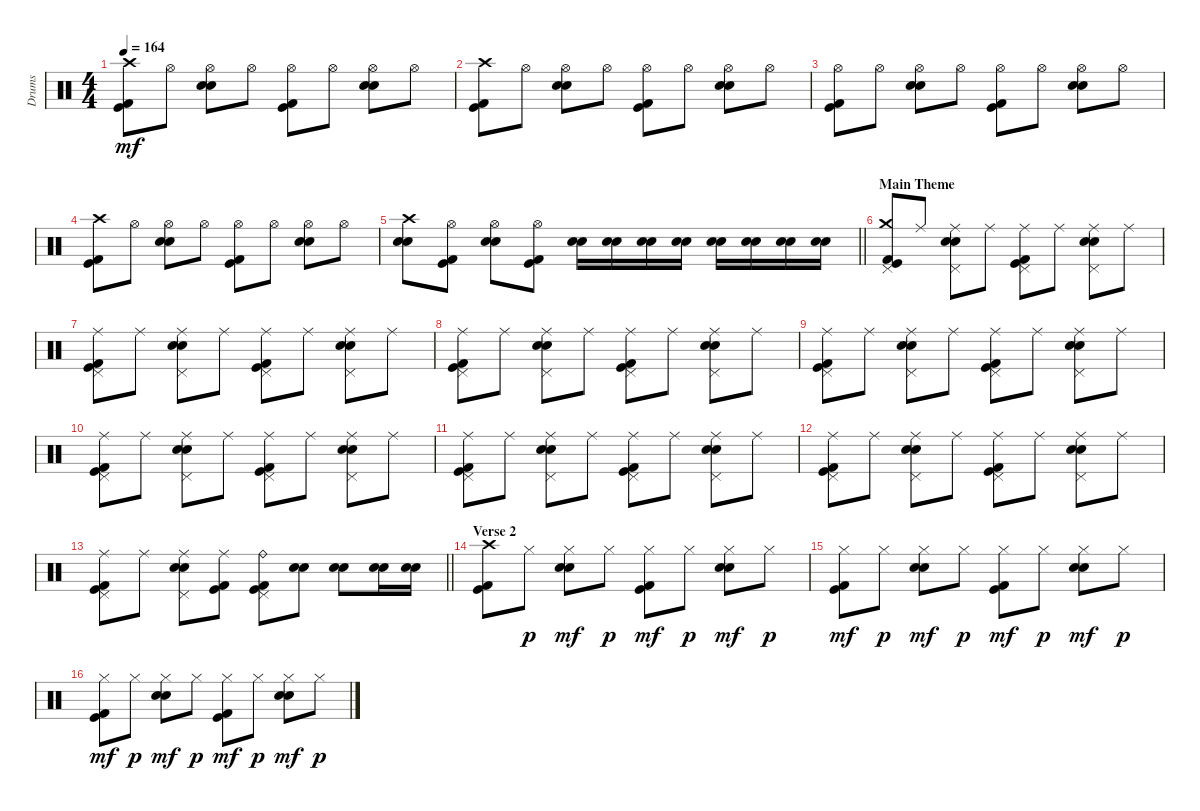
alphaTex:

\track ("Drums" "Drums") {instrument percussion}
\staff {score}
\articulation defaults
\ts (4 4)
\tempo 164
\clef neutral
\ks c
("Crash high (hit)" "Kick (hit) 2" "Kick (hit)").8{dy mf} "Hi-Hat (open)".8 ("Hi-Hat (open)" "Snare (hit) 2" "Electric Snare (hit)").8 "Hi-Hat (open)".8 ("Hi-Hat (open)" "Kick (hit) 2" "Kick (hit)").8 "Hi-Hat (open)".8 ("Hi-Hat (open)" "Snare (hit) 2" "Electric Snare (hit)").8 "Hi-Hat (open)".8 |
("Crash high (hit)" "Kick (hit) 2" "Kick (hit)").8 "Hi-Hat (open)".8 ("Hi-Hat (open)" "Snare (hit) 2" "Electric Snare (hit)").8 "Hi-Hat (open)".8 ("Hi-Hat (open)" "Kick (hit) 2" "Kick (hit)").8 "Hi-Hat (open)".8 ("Hi-Hat (open)" "Snare (hit) 2" "Electric Snare (hit)").8 "Hi-Hat (open)".8 |
("Hi-Hat (open)" "Kick (hit) 2" "Kick (hit)").8 "Hi-Hat (open)".8 ("Hi-Hat (open)" "Snare (hit) 2" "Electric Snare (hit)").8 "Hi-Hat (open)".8 ("Hi-Hat (open)" "Kick (hit) 2" "Kick (hit)").8 "Hi-Hat (open)".8 ("Hi-Hat (open)" "Snare (hit) 2" "Electric Snare (hit)").8 "Hi-Hat (open)".8 |
("Crash high (hit)" "Kick (hit) 2" "Kick (hit)").8 "Hi-Hat (open)".8 ("Hi-Hat (open)" "Snare (hit) 2" "Electric Snare (hit)").8 "Hi-Hat (open)".8 ("Hi-Hat (open)" "Kick (hit) 2" "Kick (hit)").8 "Hi-Hat (open)".8 ("Hi-Hat (open)" "Snare (hit) 2" "Electric Snare (hit)").8 "Hi-Hat (open)".8 |
\barLineRight lightlight
("Crash high (hit)" "Snare (hit) 2" "Electric Snare (hit)").8 ("Hi-Hat (open)" "Kick (hit) 2" "Kick (hit)").8 ("Hi-Hat (open)" "Snare (hit) 2" "Electric Snare (hit)").8 ("Hi-Hat (open)" "Kick (hit) 2" "Kick (hit)").8 ("Snare (hit) 2" "Electric Snare (hit)").16 ("Snare (hit) 2" "Electric Snare (hit)").16 ("Snare (hit) 2" "Electric Snare (hit)").16 ("Snare (hit) 2" "Electric Snare (hit)").16 ("Snare (hit) 2" "Electric Snare (hit)").16 ("Snare (hit) 2" "Electric Snare (hit)").16 ("Snare (hit) 2" "Electric Snare (hit)").16 ("Snare (hit) 2" "Electric Snare (hit)").16 |
\section ("" "Main Theme")
("Crash medium (hit)" "Pedal Hi-Hat (hit)" "Kick (hit) 2" "Kick (hit)").8 "Ride (middle)".8 ("Ride (middle)" "Pedal Hi-Hat (hit)" "Snare (hit) 2" "Electric Snare (hit)").8 "Ride (middle)".8 ("Ride (middle)" "Pedal Hi-Hat (hit)" "Kick (hit) 2" "Kick (hit)").8 "Ride (middle)".8 ("Ride (middle)" "Pedal Hi-Hat (hit)" "Snare (hit) 2" "Electric Snare (hit)").8 "Ride (middle)".8 |
("Ride (middle)" "Pedal Hi-Hat (hit)" "Kick (hit) 2" "Kick (hit)").8 "Ride (middle)".8 ("Ride (middle)" "Pedal Hi-Hat (hit)" "Snare (hit) 2" "Electric Snare (hit)").8 "Ride (middle)".8 ("Ride (middle)" "Pedal Hi-Hat (hit)" "Kick (hit) 2" "Kick (hit)").8 "Ride (middle)".8 ("Ride (middle)" "Pedal Hi-Hat (hit)" "Snare (hit) 2" "Electric Snare (hit)").8 "Ride (middle)".8 |
("Ride (middle)" "Pedal Hi-Hat (hit)" "Kick (hit) 2" "Kick (hit)").8 "Ride (middle)".8 ("Ride (middle)" "Pedal Hi-Hat (hit)" "Snare (hit) 2" "Electric Snare (hit)").8 "Ride (middle)".8 ("Ride (middle)" "Pedal Hi-Hat (hit)" "Kick (hit) 2" "Kick (hit)").8 "Ride (middle)".8 ("Ride (middle)" "Pedal Hi-Hat (hit)" "Snare (hit) 2" "Electric Snare (hit)").8 "Ride (middle)".8 |
("Ride (middle)" "Pedal Hi-Hat (hit)" "Kick (hit) 2" "Kick (hit)").8 "Ride (middle)".8 ("Ride (middle)" "Pedal Hi-Hat (hit)" "Snare (hit) 2" "Electric Snare (hit)").8 "Ride (middle)".8 ("Ride (middle)" "Pedal Hi-Hat (hit)" "Kick (hit) 2" "Kick (hit)").8 "Ride (middle)".8 ("Ride (middle)" "Pedal Hi-Hat (hit)" "Snare (hit) 2" "Electric Snare (hit)").8 "Ride (middle)".8 |
("Ride (middle)" "Pedal Hi-Hat (hit)" "Kick (hit) 2" "Kick (hit)").8 "Ride (middle)".8 ("Ride (middle)" "Pedal Hi-Hat (hit)" "Snare (hit) 2" "Electric Snare (hit)").8 "Ride (middle)".8 ("Ride (middle)" "Pedal Hi-Hat (hit)" "Kick (hit) 2" "Kick (hit)").8 "Ride (middle)".8 ("Ride (middle)" "Pedal Hi-Hat (hit)" "Snare (hit) 2" "Electric Snare (hit)").8 "Ride (middle)".8 |
("Ride (middle)" "Pedal Hi-Hat (hit)" "Kick (hit) 2" "Kick (hit)").8 "Ride (middle)".8 ("Ride (middle)" "Pedal Hi-Hat (hit)" "Snare (hit) 2" "Electric Snare (hit)").8 "Ride (middle)".8 ("Ride (middle)" "Pedal Hi-Hat (hit)" "Kick (hit) 2" "Kick (hit)").8 "Ride (middle)".8 ("Ride (middle)" "Pedal Hi-Hat (hit)" "Snare (hit) 2" "Electric Snare (hit)").8 "Ride (middle)".8 |
("Ride (middle)" "Pedal Hi-Hat (hit)" "Kick (hit) 2" "Kick (hit)").8 "Ride (middle)".8 ("Ride (middle)" "Pedal Hi-Hat (hit)" "Snare (hit) 2" "Electric Snare (hit)").8 "Ride (middle)".8 ("Ride (middle)" "Pedal Hi-Hat (hit)" "Kick (hit) 2" "Kick (hit)").8 "Ride (middle)".8 ("Ride (middle)" "Pedal Hi-Hat (hit)" "Snare (hit) 2" "Electric Snare (hit)").8 "Ride (middle)".8 |
\barLineRight lightlight
("Ride (middle)" "Pedal Hi-Hat (hit)" "Kick (hit) 2" "Kick (hit)").8 "Ride (middle)".8 ("Ride (middle)" "Pedal Hi-Hat (hit)" "Snare (hit) 2" "Electric Snare (hit)").8 ("Ride (middle)" "Kick (hit) 2" "Kick (hit)").8 ("Ride (bell)" "Pedal Hi-Hat (hit)" "Kick (hit) 2" "Kick (hit)").8 ("Snare (hit) 2" "Electric Snare (hit)").8 ("Snare (hit) 2" "Electric Snare (hit)").8 ("Snare (hit) 2" "Electric Snare (hit)").16 ("Snare (hit) 2" "Electric Snare (hit)").16 |
\section ("" "Verse 2")
("Crash high (hit)" "Kick (hit) 2" "Kick (hit)").8 "Hi-Hat (closed)".8{dy p} ("Hi-Hat (closed)" "Snare (hit) 2" "Electric Snare (hit)").8{dy mf} "Hi-Hat (closed)".8{dy p} ("Hi-Hat (closed)" "Kick (hit) 2" "Kick (hit)").8{dy mf} "Hi-Hat (closed)".8{dy p} ("Hi-Hat (closed)" "Snare (hit) 2" "Electric Snare (hit)").8{dy mf} "Hi-Hat (closed)".8{dy p} |
("Hi-Hat (closed)" "Kick (hit) 2" "Kick (hit)").8{dy mf} "Hi-Hat (closed)".8{dy p} ("Hi-Hat (closed)" "Snare (hit) 2" "Electric Snare (hit)").8{dy mf} "Hi-Hat (closed)".8{dy p} ("Hi-Hat (closed)" "Kick (hit) 2" "Kick (hit)").8{dy mf} "Hi-Hat (closed)".8{dy p} ("Hi-Hat (closed)" "Snare (hit) 2" "Electric Snare (hit)").8{dy mf} "Hi-Hat (closed)".8{dy p} |
("Hi-Hat (closed)" "Kick (hit) 2" "Kick (hit)").8{dy mf} "Hi-Hat (closed)".8{dy p} ("Hi-Hat (closed)" "Snare (hit) 2" "Electric Snare (hit)").8{dy mf} "Hi-Hat (closed)".8{dy p} ("Hi-Hat (closed)" "Kick (hit) 2" "Kick (hit)").8{dy mf} "Hi-Hat (closed)".8{dy p} ("Hi-Hat (closed)" "Snare (hit) 2" "Electric Snare (hit)").8{dy mf} "Hi-Hat (closed)".8{dy p}
